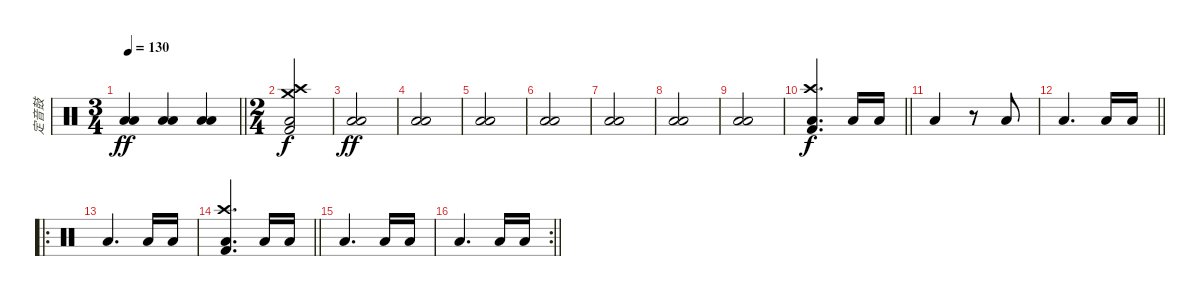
\track ("定音鼓" "定音鼓") {instrument percussion}
\staff {score}
\articulation defaults
\ts (3 4)
\tempo 130
\clef neutral
\barLineRight lightlight
\ks c
("Low Floor Tom (hit)" "Low Floor Tom (hit)").4{dy ff} ("Low Floor Tom (hit)" "Low Floor Tom (hit)").4 ("Low Floor Tom (hit)" "Low Floor Tom (hit)").4 |
\ts (2 4)
("Crash high (hit)" "Crash medium (hit)" "Kick (hit) 2" "Low Floor Tom (hit)").2{dy f} |
("Low Floor Tom (hit)" "Low Floor Tom (hit)").2{dy ff} |
("Low Floor Tom (hit)" "Low Floor Tom (hit)").2 |
("Low Floor Tom (hit)" "Low Floor Tom (hit)").2 |
("Low Floor Tom (hit)" "Low Floor Tom (hit)").2 |
("Low Floor Tom (hit)" "Low Floor Tom (hit)").2 |
("Low Floor Tom (hit)" "Low Floor Tom (hit)").2 |
("Low Floor Tom (hit)" "Low Floor Tom (hit)").2 |
\barLineRight lightlight
("Crash high (hit)" "Low Floor Tom (hit)" "Kick (hit) 2").4{d dy f} "Low Floor Tom (hit)".16 "Low Floor Tom (hit)".16 |
"Low Floor Tom (hit)".4 r.8 "Low Floor Tom (hit)".8 |
\barLineRight lightlight "Low Floor Tom (hit)".4{d} "Low Floor Tom (hit)".16 "Low Floor Tom (hit)".16
|
\ro "Low Floor Tom (hit)".4{d} "Low Floor Tom (hit)".16 "Low Floor Tom (hit)".16
|
\barLineRight lightlight
("Crash high (hit)" "Low Floor Tom (hit)" "Kick (hit) 2").4{d} "Low Floor Tom (hit)".16 "Low Floor Tom (hit)".16 |
"Low Floor Tom (hit)".4{d} "Low Floor Tom (hit)".16 "Low Floor Tom (hit)".16 |
\rc 2
\barLineRight lightlight "Low Floor Tom (hit)".4{d} "Low Floor Tom (hit)".16 "Low Floor Tom (hit)".16
